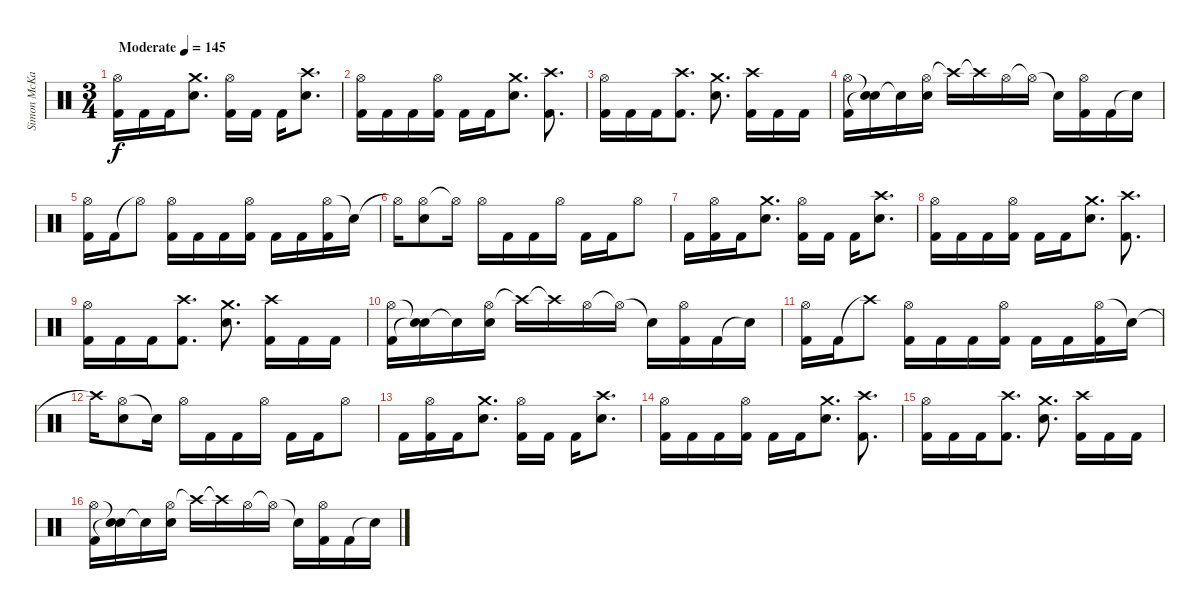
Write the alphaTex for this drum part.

\track ("Simon McKay" "Simon McKa") {instrument percussion}
\staff {score}
\articulation defaults
\ts (3 4)
\tempo (145 "Moderate")
\clef neutral
\ks c
("Hi-Hat (open)" "Kick (hit) 2").16{dy f} "Kick (hit) 2".16 "Kick (hit) 2".16 ("Crash medium (hit)" "Snare (hit) 2").8{d} ("Hi-Hat (open)" "Kick (hit) 2").16 "Kick (hit) 2".16 "Kick (hit) 2".16 ("Crash high (hit)" "Snare (hit) 2").8{d} |
("Hi-Hat (open)" "Kick (hit) 2").16 "Kick (hit) 2".16 "Kick (hit) 2".16 ("Hi-Hat (open)" "Kick (hit) 2").16 "Kick (hit) 2".16 "Kick (hit) 2".16 ("Crash medium (hit)" "Snare (hit) 2").8{d} ("Crash high (hit)" "Kick (hit) 2").8{d} |
("Hi-Hat (open)" "Kick (hit) 2").16 "Kick (hit) 2".16 "Kick (hit) 2".16 ("Crash high (hit)" "Kick (hit) 2").8{d} ("Crash medium (hit)" "Snare (hit) 2").8{d} ("Crash high (hit)" "Kick (hit) 2").16 "Kick (hit) 2".16 "Kick (hit) 2".16 |
("Hi-Hat (open)" "Kick (hit) 2").16 ("Snare (hit)"{t} "Snare (hit)"{t}).16 "Snare (hit)"{t}.16 ("Hi-Hat (open)" "Snare (hit) 2").16 "Crash high (hit)"{t}.16 "Crash high (hit)"{t}.16 "Hi-Hat (open)".16 "Hi-Hat (open)"{t}.16 "Snare (hit)"{t}.16 ("Hi-Hat (open)" "Kick (hit) 2").16 "Kick (hit) 2".16 "Snare (hit)"{t}.16 |
("Hi-Hat (open)" "Kick (hit) 2").16 "Kick (hit) 2".16 "Hi-Hat (open)"{t}.8 ("Hi-Hat (open)" "Kick (hit) 2").16 "Kick (hit) 2".16 "Kick (hit) 2".16 ("Hi-Hat (open)" "Kick (hit) 2").16 "Kick (hit) 2".16 "Kick (hit) 2".16 ("Hi-Hat (open)" "Kick (hit) 2").16 "Snare (hit)"{t}.16 |
"Hi-Hat (open)"{t}.16 ("Hi-Hat (open)" "Snare (hit) 2").8 "Hi-Hat (open)"{t}.16 "Hi-Hat (open)".16 "Kick (hit) 2".16 "Kick (hit) 2".16 "Hi-Hat (open)".16 "Kick (hit) 2".16 "Kick (hit) 2".16 "Hi-Hat (open)".8 |
"Kick (hit) 2".16 ("Hi-Hat (open)" "Kick (hit) 2").16 "Kick (hit) 2".16 ("Crash medium (hit)" "Snare (hit) 2").8{d} ("Hi-Hat (open)" "Kick (hit) 2").16 "Kick (hit) 2".16 "Kick (hit) 2".16 ("Crash high (hit)" "Snare (hit) 2").8{d} |
("Hi-Hat (open)" "Kick (hit) 2").16 "Kick (hit) 2".16 "Kick (hit) 2".16 ("Hi-Hat (open)" "Kick (hit) 2").16 "Kick (hit) 2".16 "Kick (hit) 2".16 ("Crash medium (hit)" "Snare (hit) 2").8{d} ("Crash high (hit)" "Kick (hit) 2").8{d} |
("Hi-Hat (open)" "Kick (hit) 2").16 "Kick (hit) 2".16 "Kick (hit) 2".16 ("Crash high (hit)" "Kick (hit) 2").8{d} ("Crash medium (hit)" "Snare (hit) 2").8{d} ("Crash high (hit)" "Kick (hit) 2").16 "Kick (hit) 2".16 "Kick (hit) 2".16 |
("Hi-Hat (open)" "Kick (hit) 2").16 ("Snare (hit)"{t} "Snare (hit)"{t}).16 "Snare (hit)"{t}.16 ("Hi-Hat (open)" "Snare (hit) 2").16 "Crash high (hit)"{t}.16 "Crash high (hit)"{t}.16 "Hi-Hat (open)".16 "Hi-Hat (open)"{t}.16 "Snare (hit)"{t}.16 ("Hi-Hat (open)" "Kick (hit) 2").16 "Kick (hit) 2".16 "Snare (hit)"{t}.16 |
("Hi-Hat (open)" "Kick (hit) 2").16 "Kick (hit) 2".16 "Crash high (hit)"{t}.8 ("Hi-Hat (open)" "Kick (hit) 2").16 "Kick (hit) 2".16 "Kick (hit) 2".16 ("Hi-Hat (open)" "Kick (hit) 2").16 "Kick (hit) 2".16 "Kick (hit) 2".16 ("Hi-Hat (open)" "Kick (hit) 2").16 "Snare (hit)"{t}.16 |
"Crash high (hit)"{t}.16 ("Hi-Hat (open)" "Snare (hit) 2").8 "Snare (hit)"{t}.16 "Hi-Hat (open)".16 "Kick (hit) 2".16 "Kick (hit) 2".16 "Hi-Hat (open)".16 "Kick (hit) 2".16 "Kick (hit) 2".16 "Hi-Hat (open)".8 |
"Kick (hit) 2".16 ("Hi-Hat (open)" "Kick (hit) 2").16 "Kick (hit) 2".16 ("Crash medium (hit)" "Snare (hit) 2").8{d} ("Hi-Hat (open)" "Kick (hit) 2").16 "Kick (hit) 2".16 "Kick (hit) 2".16 ("Crash high (hit)" "Snare (hit) 2").8{d} |
("Hi-Hat (open)" "Kick (hit) 2").16 "Kick (hit) 2".16 "Kick (hit) 2".16 ("Hi-Hat (open)" "Kick (hit) 2").16 "Kick (hit) 2".16 "Kick (hit) 2".16 ("Crash medium (hit)" "Snare (hit) 2").8{d} ("Crash high (hit)" "Kick (hit) 2").8{d} |
("Hi-Hat (open)" "Kick (hit) 2").16 "Kick (hit) 2".16 "Kick (hit) 2".16 ("Crash high (hit)" "Kick (hit) 2").8{d} ("Crash medium (hit)" "Snare (hit) 2").8{d} ("Crash high (hit)" "Kick (hit) 2").16 "Kick (hit) 2".16 "Kick (hit) 2".16 |
("Hi-Hat (open)" "Kick (hit) 2").16 ("Snare (hit)"{t} "Snare (hit)"{t}).16 "Snare (hit)"{t}.16 ("Hi-Hat (open)" "Snare (hit) 2").16 "Crash high (hit)"{t}.16 "Crash high (hit)"{t}.16 "Hi-Hat (open)".16 "Hi-Hat (open)"{t}.16 "Snare (hit)"{t}.16 ("Hi-Hat (open)" "Kick (hit) 2").16 "Kick (hit) 2".16 "Snare (hit)"{t}.16
